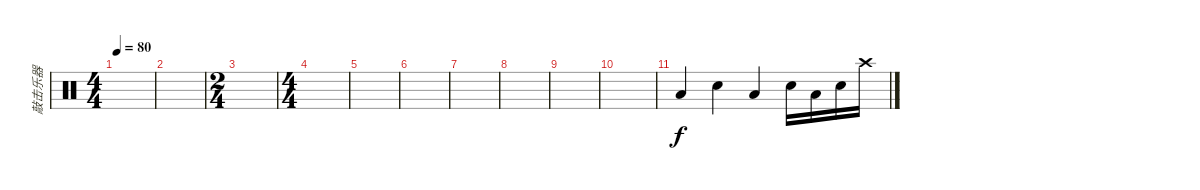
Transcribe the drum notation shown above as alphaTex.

\track ("敲击乐器" "敲击乐器") {instrument percussion}
\staff {score}
\articulation defaults
\ts (4 4)
\tempo 80
\clef neutral
\ks c
|
|
\ts (2 4)
|
\ts (4 4)
|
|
|
|
|
|
|
"Low Floor Tom (hit)".4 "Electric Snare (hit)".4 "Low Floor Tom (hit)".4 "Electric Snare (hit)".16 "Low Floor Tom (hit)".16 "Electric Snare (hit)".16 "Crash high (hit)".16
